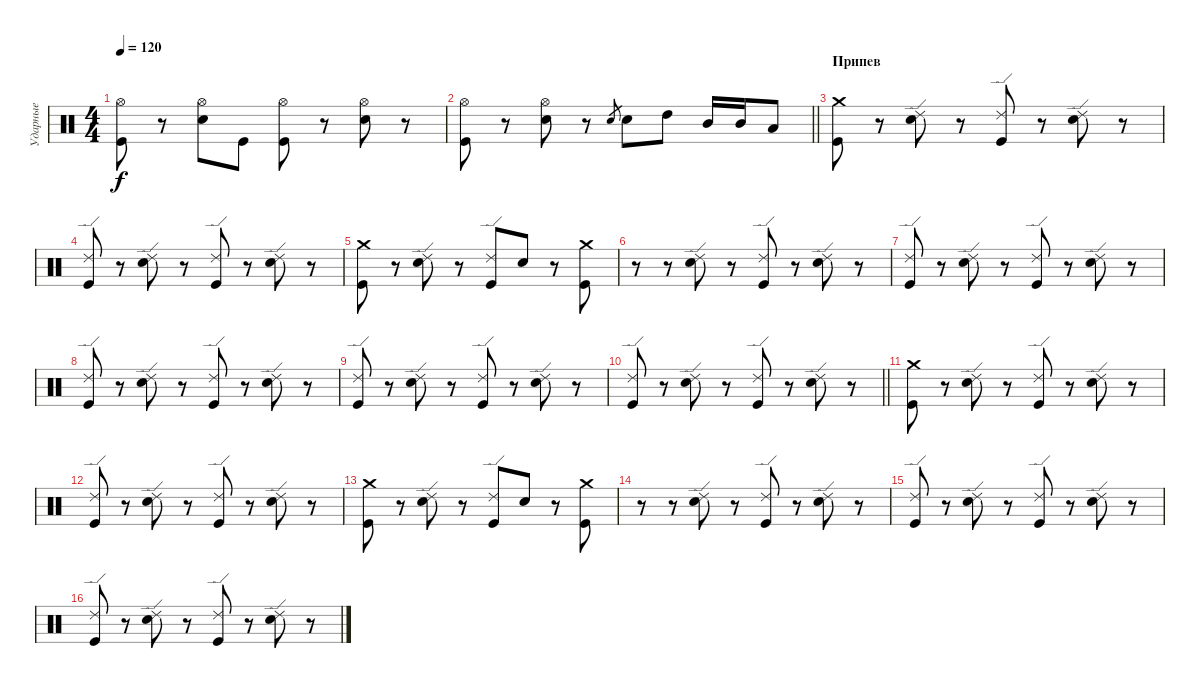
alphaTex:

\track ("Ударные" "Ударные") {instrument percussion}
\staff {score}
\articulation defaults
\ts (4 4)
\tempo 120
\clef neutral
\ks c
("Hi-Hat (open)" "Kick (hit)").8{dy f} r.8 ("Hi-Hat (open)" "Electric Snare (hit)").8 "Kick (hit)".8 ("Hi-Hat (open)" "Kick (hit)").8 r.8 ("Hi-Hat (open)" "Electric Snare (hit)").8 r.8 |
\barLineRight lightlight
("Hi-Hat (open)" "Kick (hit)").8 r.8 ("Hi-Hat (open)" "Electric Snare (hit)").8 r.8 "Electric Snare (hit)".8{gr} "Electric Snare (hit)".8 "High Tom (hit)".8 "Mid Tom (hit)".16 "Mid Tom (hit)".16 "Low Tom (hit)".8 |
\section ("" "Припев")
("Crash medium (hit)" "Kick (hit)").8 r.8 ("Ride (edge) 2" "Electric Snare (hit)").8 r.8 ("Ride (edge) 2" "Kick (hit)").8 r.8 ("Ride (edge) 2" "Electric Snare (hit)").8 r.8 |
("Ride (edge) 2" "Kick (hit)").8 r.8 ("Ride (edge) 2" "Electric Snare (hit)").8 r.8 ("Ride (edge) 2" "Kick (hit)").8 r.8 ("Ride (edge) 2" "Electric Snare (hit)").8 r.8 |
("Crash medium (hit)" "Kick (hit)").8 r.8 ("Ride (edge) 2" "Electric Snare (hit)").8 r.8 ("Ride (edge) 2" "Kick (hit)").8 "Electric Snare (hit)".8 r.8 ("Crash medium (hit)" "Kick (hit)").8 |
r.8 r.8 ("Ride (edge) 2" "Electric Snare (hit)").8 r.8 ("Ride (edge) 2" "Kick (hit)").8 r.8 ("Ride (edge) 2" "Electric Snare (hit)").8 r.8 |
("Ride (edge) 2" "Kick (hit)").8 r.8 ("Ride (edge) 2" "Electric Snare (hit)").8 r.8 ("Ride (edge) 2" "Kick (hit)").8 r.8 ("Ride (edge) 2" "Electric Snare (hit)").8 r.8 |
("Ride (edge) 2" "Kick (hit)").8 r.8 ("Ride (edge) 2" "Electric Snare (hit)").8 r.8 ("Ride (edge) 2" "Kick (hit)").8 r.8 ("Ride (edge) 2" "Electric Snare (hit)").8 r.8 |
("Ride (edge) 2" "Kick (hit)").8 r.8 ("Ride (edge) 2" "Electric Snare (hit)").8 r.8 ("Ride (edge) 2" "Kick (hit)").8 r.8 ("Ride (edge) 2" "Electric Snare (hit)").8 r.8 |
\barLineRight lightlight
("Ride (edge) 2" "Kick (hit)").8 r.8 ("Ride (edge) 2" "Electric Snare (hit)").8 r.8 ("Ride (edge) 2" "Kick (hit)").8 r.8 ("Ride (edge) 2" "Electric Snare (hit)").8 r.8 |
\section ("" " ")
("Crash medium (hit)" "Kick (hit)").8 r.8 ("Ride (edge) 2" "Electric Snare (hit)").8 r.8 ("Ride (edge) 2" "Kick (hit)").8 r.8 ("Ride (edge) 2" "Electric Snare (hit)").8 r.8 |
("Ride (edge) 2" "Kick (hit)").8 r.8 ("Ride (edge) 2" "Electric Snare (hit)").8 r.8 ("Ride (edge) 2" "Kick (hit)").8 r.8 ("Ride (edge) 2" "Electric Snare (hit)").8 r.8 |
("Crash medium (hit)" "Kick (hit)").8 r.8 ("Ride (edge) 2" "Electric Snare (hit)").8 r.8 ("Ride (edge) 2" "Kick (hit)").8 "Electric Snare (hit)".8 r.8 ("Crash medium (hit)" "Kick (hit)").8 |
r.8 r.8 ("Ride (edge) 2" "Electric Snare (hit)").8 r.8 ("Ride (edge) 2" "Kick (hit)").8 r.8 ("Ride (edge) 2" "Electric Snare (hit)").8 r.8 |
("Ride (edge) 2" "Kick (hit)").8 r.8 ("Ride (edge) 2" "Electric Snare (hit)").8 r.8 ("Ride (edge) 2" "Kick (hit)").8 r.8 ("Ride (edge) 2" "Electric Snare (hit)").8 r.8 |
("Ride (edge) 2" "Kick (hit)").8 r.8 ("Ride (edge) 2" "Electric Snare (hit)").8 r.8 ("Ride (edge) 2" "Kick (hit)").8 r.8 ("Ride (edge) 2" "Electric Snare (hit)").8 r.8
